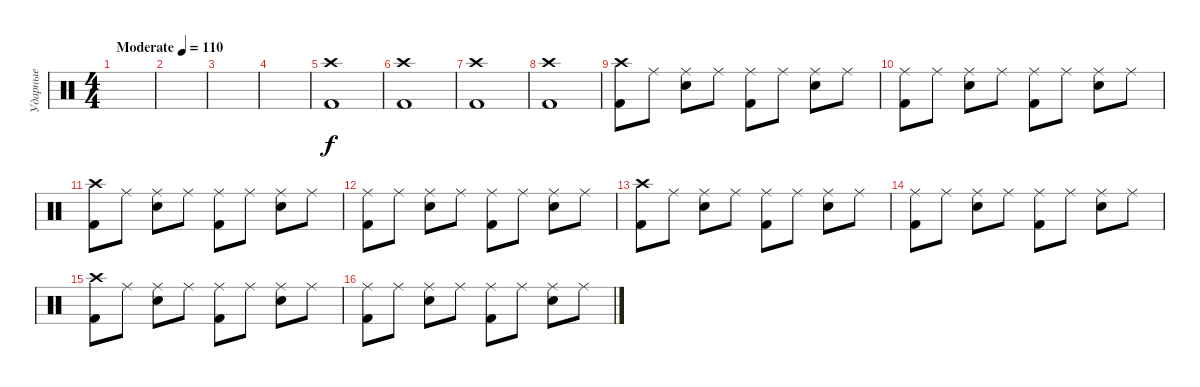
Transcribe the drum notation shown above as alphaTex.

\track ("Ударные" "Ударные") {instrument percussion}
\staff {score}
\articulation defaults
\ts (4 4)
\tempo (110 "Moderate")
\clef neutral
\ks c
|
|
|
|
("Kick (hit) 2" "Crash high (hit)").1 |
("Kick (hit) 2" "Crash high (hit)").1 |
("Kick (hit) 2" "Crash high (hit)").1 |
("Kick (hit) 2" "Crash high (hit)").1 |
("Crash high (hit)" "Kick (hit) 2").8 "Ride (middle)".8 ("Electric Snare (hit)" "Ride (middle)").8 "Ride (middle)".8 ("Kick (hit) 2" "Ride (middle)").8 "Ride (middle)".8 ("Electric Snare (hit)" "Ride (middle)").8 "Ride (middle)".8 |
("Kick (hit) 2" "Ride (middle)").8 "Ride (middle)".8 ("Electric Snare (hit)" "Ride (middle)").8 "Ride (middle)".8 ("Kick (hit) 2" "Ride (middle)").8 "Ride (middle)".8 ("Electric Snare (hit)" "Ride (middle)").8 "Ride (middle)".8 |
("Crash high (hit)" "Kick (hit) 2").8 "Ride (middle)".8 ("Electric Snare (hit)" "Ride (middle)").8 "Ride (middle)".8 ("Kick (hit) 2" "Ride (middle)").8 "Ride (middle)".8 ("Electric Snare (hit)" "Ride (middle)").8 "Ride (middle)".8 |
("Kick (hit) 2" "Ride (middle)").8 "Ride (middle)".8 ("Electric Snare (hit)" "Ride (middle)").8 "Ride (middle)".8 ("Kick (hit) 2" "Ride (middle)").8 "Ride (middle)".8 ("Electric Snare (hit)" "Ride (middle)").8 "Ride (middle)".8 |
("Crash high (hit)" "Kick (hit) 2").8 "Ride (middle)".8 ("Electric Snare (hit)" "Ride (middle)").8 "Ride (middle)".8 ("Kick (hit) 2" "Ride (middle)").8 "Ride (middle)".8 ("Electric Snare (hit)" "Ride (middle)").8 "Ride (middle)".8 |
("Kick (hit) 2" "Ride (middle)").8 "Ride (middle)".8 ("Electric Snare (hit)" "Ride (middle)").8 "Ride (middle)".8 ("Kick (hit) 2" "Ride (middle)").8 "Ride (middle)".8 ("Electric Snare (hit)" "Ride (middle)").8 "Ride (middle)".8 |
("Crash high (hit)" "Kick (hit) 2").8 "Ride (middle)".8 ("Electric Snare (hit)" "Ride (middle)").8 "Ride (middle)".8 ("Kick (hit) 2" "Ride (middle)").8 "Ride (middle)".8 ("Electric Snare (hit)" "Ride (middle)").8 "Ride (middle)".8 |
("Kick (hit) 2" "Ride (middle)").8 "Ride (middle)".8 ("Electric Snare (hit)" "Ride (middle)").8 "Ride (middle)".8 ("Kick (hit) 2" "Ride (middle)").8 "Ride (middle)".8 ("Electric Snare (hit)" "Ride (middle)").8 "Ride (middle)".8
